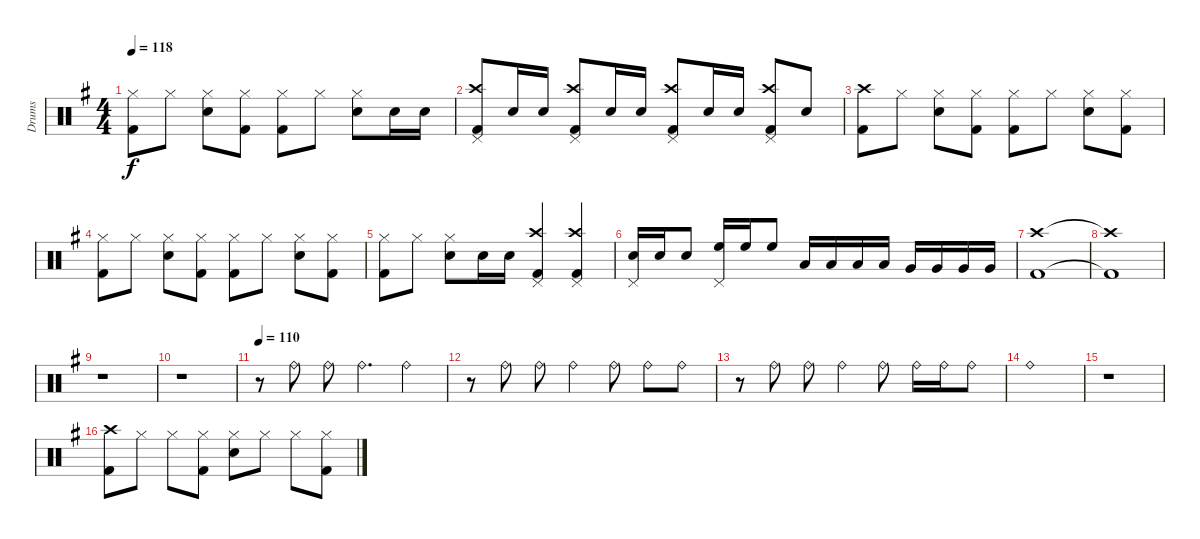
\track ("Drums" "Drums") {instrument percussion}
\staff {score}
\articulation defaults
\ts (4 4)
\tempo 118
\clef neutral
\ks eminor
("Hi-Hat (closed)" "Kick (hit) 2").8{dy f} "Hi-Hat (closed)".8 ("Hi-Hat (closed)" "Electric Snare (hit)").8 ("Hi-Hat (closed)" "Kick (hit) 2").8 ("Hi-Hat (closed)" "Kick (hit) 2").8 "Hi-Hat (closed)".8 ("Hi-Hat (closed)" "Electric Snare (hit)").8 "Electric Snare (hit)".16 "Electric Snare (hit)".16 |
("Crash high (hit)" "Pedal Hi-Hat (hit)" "Kick (hit) 2").8 "Electric Snare (hit)".16 "Electric Snare (hit)".16 ("Crash high (hit)" "Pedal Hi-Hat (hit)" "Kick (hit) 2").8 "Electric Snare (hit)".16 "Electric Snare (hit)".16 ("Crash high (hit)" "Pedal Hi-Hat (hit)" "Kick (hit) 2").8 "Electric Snare (hit)".16 "Electric Snare (hit)".16 ("Crash high (hit)" "Pedal Hi-Hat (hit)" "Kick (hit) 2").8 "Electric Snare (hit)".8 |
("Crash high (hit)" "Kick (hit) 2").8 "Hi-Hat (closed)".8 ("Hi-Hat (closed)" "Electric Snare (hit)").8 ("Hi-Hat (closed)" "Kick (hit) 2").8 ("Hi-Hat (closed)" "Kick (hit) 2").8 "Hi-Hat (closed)".8 ("Hi-Hat (closed)" "Electric Snare (hit)").8 ("Hi-Hat (closed)" "Kick (hit) 2").8 |
("Hi-Hat (closed)" "Kick (hit) 2").8 "Hi-Hat (closed)".8 ("Hi-Hat (closed)" "Electric Snare (hit)").8 ("Hi-Hat (closed)" "Kick (hit) 2").8 ("Hi-Hat (closed)" "Kick (hit) 2").8 "Hi-Hat (closed)".8 ("Hi-Hat (closed)" "Electric Snare (hit)").8 ("Hi-Hat (closed)" "Kick (hit) 2").8 |
("Hi-Hat (closed)" "Kick (hit) 2").8 "Hi-Hat (closed)".8 ("Hi-Hat (closed)" "Electric Snare (hit)").8 "Electric Snare (hit)".16 "Electric Snare (hit)".16 ("Crash high (hit)" "Pedal Hi-Hat (hit)" "Kick (hit) 2").4 ("Crash high (hit)" "Pedal Hi-Hat (hit)" "Kick (hit) 2").4 |
("Pedal Hi-Hat (hit)" "Electric Snare (hit)").16 "Electric Snare (hit)".16 "Electric Snare (hit)".8 ("Pedal Hi-Hat (hit)" "High Floor Tom (hit)").16 "High Floor Tom (hit)".16 "High Floor Tom (hit)".8 "Low Tom (hit)".16 "Low Tom (hit)".16 "Low Tom (hit)".16 "Low Tom (hit)".16 "Very Low Tom (hit)".16 "Very Low Tom (hit)".16 "Very Low Tom (hit)".16 "Very Low Tom (hit)".16 |
("Crash high (hit)" "Kick (hit) 2").1 |
("Crash high (hit)"{t} "Kick (hit) 2"{t}).1 |
r.1 |
r.1 |
\tempo 110
r.8 "Ride (bell)".8 "Ride (bell)".8 "Ride (bell)".4{d} "Ride (bell)".4 |
r.8 "Ride (bell)".8 "Ride (bell)".8 "Ride (bell)".4 "Ride (bell)".8 "Ride (bell)".8 "Ride (bell)".8 |
r.8 "Ride (bell)".8 "Ride (bell)".8 "Ride (bell)".4 "Ride (bell)".8 "Ride (bell)".16 "Ride (bell)".16 "Ride (bell)".8 |
"Ride (bell)".1 |
r.1 |
("Crash high (hit)" "Kick (hit) 2").8 "Hi-Hat (closed)".8 "Hi-Hat (closed)".8 ("Hi-Hat (closed)" "Kick (hit) 2").8 ("Hi-Hat (closed)" "Electric Snare (hit)").8 "Hi-Hat (closed)".8 "Hi-Hat (closed)".8 ("Hi-Hat (closed)" "Kick (hit) 2").8
